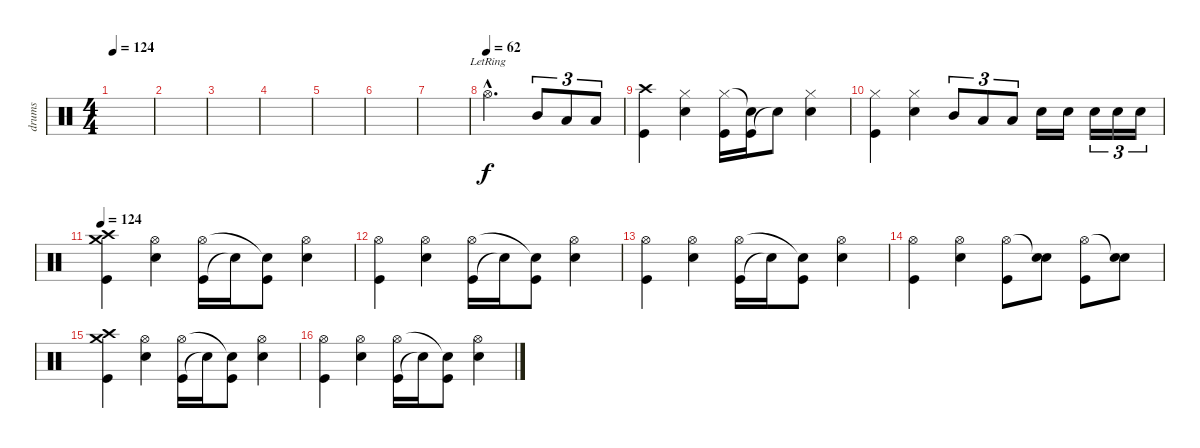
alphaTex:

\track ("drums" "drums") {instrument percussion}
\staff {score}
\articulation defaults
\ts (4 4)
\tempo 124
\clef neutral
\ks c
|
|
|
|
|
|
|
\tempo (62)
"Hi-Hat (open)"{hac lr}.2{d} "Mid Tom (hit)".8{tu (3 2)} "Low Tom (hit)".8{tu (3 2)} "Low Floor Tom (hit)".8{tu (3 2)} |
("Kick (hit)" "Crash high (hit)").4 ("Snare (hit) 2" "Hi-Hat (closed)").4 ("Kick (hit)" "Hi-Hat (closed)").16 ("Kick (hit)" "Snare (hit)"{t}).16 "Snare (hit)"{t}.8 ("Snare (hit) 2" "Hi-Hat (closed)").4 |
("Kick (hit)" "Hi-Hat (closed)").4 ("Snare (hit) 2" "Hi-Hat (closed)").4 "Mid Tom (hit)".8{tu (3 2)} "Low Tom (hit)".8{tu (3 2)} "Low Floor Tom (hit)".8{tu (3 2)} "Snare (hit) 2".16 "Snare (hit) 2".16 "Snare (hit) 2".16{tu (3 2)} "Snare (hit) 2".16{tu (3 2)} "Snare (hit) 2".16{tu (3 2)} |
\tempo 124
("Kick (hit)" "Crash medium (hit)" "Crash high (hit)").4 ("Snare (hit) 2" "Hi-Hat (open)").4 ("Kick (hit)" "Hi-Hat (open)").16 "Snare (hit)"{t}.16 ("Kick (hit)" "Snare (hit)"{t}).8 ("Snare (hit) 2" "Hi-Hat (open)").4 |
("Kick (hit)" "Hi-Hat (open)").4 ("Snare (hit) 2" "Hi-Hat (open)").4 ("Kick (hit)" "Hi-Hat (open)").16 "Snare (hit)"{t}.16 ("Kick (hit)" "Snare (hit)"{t}).8 ("Snare (hit) 2" "Hi-Hat (open)").4 |
("Kick (hit)" "Hi-Hat (open)").4 ("Snare (hit) 2" "Hi-Hat (open)").4 ("Kick (hit)" "Hi-Hat (open)").16 "Snare (hit)"{t}.16 ("Kick (hit)" "Snare (hit)"{t}).8 ("Snare (hit) 2" "Hi-Hat (open)").4 |
("Kick (hit)" "Hi-Hat (open)").4 ("Snare (hit) 2" "Hi-Hat (open)").4 ("Kick (hit)" "Hi-Hat (open)").8 ("Snare (hit) 2" "Snare (hit)"{t}).8 ("Kick (hit)" "Hi-Hat (open)").8 ("Snare (hit) 2" "Snare (hit)"{t}).8 |
("Kick (hit)" "Crash medium (hit)" "Crash high (hit)").4 ("Snare (hit) 2" "Hi-Hat (open)").4 ("Kick (hit)" "Hi-Hat (open)").16 "Snare (hit)"{t}.16 ("Kick (hit)" "Snare (hit)"{t}).8 ("Snare (hit) 2" "Hi-Hat (open)").4 |
("Kick (hit)" "Hi-Hat (open)").4 ("Snare (hit) 2" "Hi-Hat (open)").4 ("Kick (hit)" "Hi-Hat (open)").16 "Snare (hit)"{t}.16 ("Kick (hit)" "Snare (hit)"{t}).8 ("Snare (hit) 2" "Hi-Hat (open)").4
